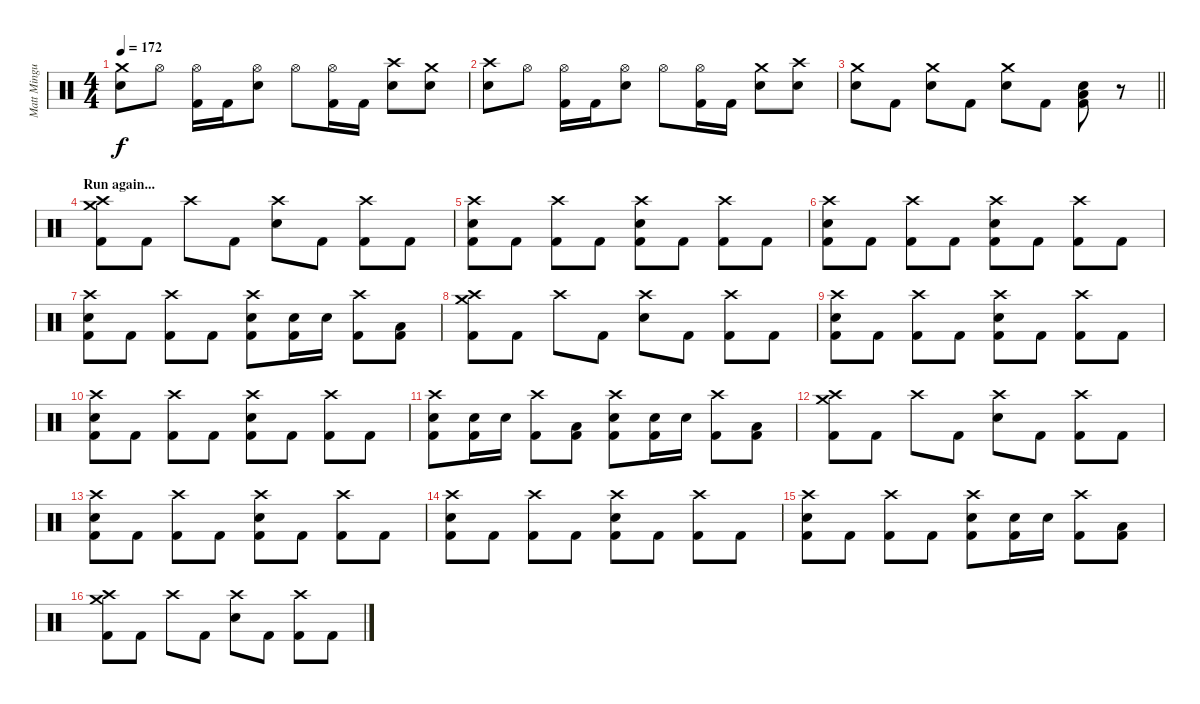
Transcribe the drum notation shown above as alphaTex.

\track ("Matt Mingus (Drum Kit)" "Matt Mingu") {instrument percussion}
\staff {score}
\articulation defaults
\ts (4 4)
\tempo 172
\clef neutral
\ks c
("Crash medium (hit)" "Electric Snare (hit)").8{dy f} "Hi-Hat (open)".8 ("Hi-Hat (open)" "Kick (hit) 2").16 "Kick (hit) 2".16 ("Hi-Hat (open)" "Electric Snare (hit)").8 "Hi-Hat (open)".8 ("Hi-Hat (open)" "Kick (hit) 2").16 "Kick (hit) 2".16 ("Crash high (hit)" "Electric Snare (hit)").8 ("Crash medium (hit)" "Electric Snare (hit)").8 |
("Crash high (hit)" "Electric Snare (hit)").8 "Hi-Hat (open)".8 ("Hi-Hat (open)" "Kick (hit) 2").16 "Kick (hit) 2".16 ("Hi-Hat (open)" "Electric Snare (hit)").8 "Hi-Hat (open)".8 ("Hi-Hat (open)" "Kick (hit) 2").16 "Kick (hit) 2".16 ("Crash medium (hit)" "Electric Snare (hit)").8 ("Crash high (hit)" "Electric Snare (hit)").8 |
\barLineRight lightlight
("Crash medium (hit)" "Electric Snare (hit)").8 "Kick (hit) 2".8 ("Crash medium (hit)" "Electric Snare (hit)").8 "Kick (hit) 2".8 ("Crash medium (hit)" "Electric Snare (hit)").8 "Kick (hit) 2".8 ("Low Tom (hit)" "Electric Snare (hit)" "Kick (hit) 2").8 r.8 |
\section ("" "Run again...")
("Crash medium (hit)" "Crash high (hit)" "Kick (hit) 2").8 "Kick (hit) 2".8 "Crash high (hit)".8 "Kick (hit) 2".8 ("Crash high (hit)" "Electric Snare (hit)").8 "Kick (hit) 2".8 ("Crash high (hit)" "Kick (hit) 2").8 "Kick (hit) 2".8 |
("Crash high (hit)" "Electric Snare (hit)" "Kick (hit) 2").8 "Kick (hit) 2".8 ("Crash high (hit)" "Kick (hit) 2").8 "Kick (hit) 2".8 ("Crash high (hit)" "Electric Snare (hit)" "Kick (hit) 2").8 "Kick (hit) 2".8 ("Crash high (hit)" "Kick (hit) 2").8 "Kick (hit) 2".8 |
("Crash high (hit)" "Electric Snare (hit)" "Kick (hit) 2").8 "Kick (hit) 2".8 ("Crash high (hit)" "Kick (hit) 2").8 "Kick (hit) 2".8 ("Crash high (hit)" "Electric Snare (hit)" "Kick (hit) 2").8 "Kick (hit) 2".8 ("Crash high (hit)" "Kick (hit) 2").8 "Kick (hit) 2".8 |
("Crash high (hit)" "Electric Snare (hit)" "Kick (hit) 2").8 "Kick (hit) 2".8 ("Crash high (hit)" "Kick (hit) 2").8 "Kick (hit) 2".8 ("Crash high (hit)" "Electric Snare (hit)" "Kick (hit) 2").8 ("Electric Snare (hit)" "Kick (hit) 2").16 "Electric Snare (hit)".16 ("Crash high (hit)" "Kick (hit) 2").8 ("Low Tom (hit)" "Kick (hit) 2").8 |
("Crash medium (hit)" "Crash high (hit)" "Kick (hit) 2").8 "Kick (hit) 2".8 "Crash high (hit)".8 "Kick (hit) 2".8 ("Crash high (hit)" "Electric Snare (hit)").8 "Kick (hit) 2".8 ("Crash high (hit)" "Kick (hit) 2").8 "Kick (hit) 2".8 |
("Crash high (hit)" "Electric Snare (hit)" "Kick (hit) 2").8 "Kick (hit) 2".8 ("Crash high (hit)" "Kick (hit) 2").8 "Kick (hit) 2".8 ("Crash high (hit)" "Electric Snare (hit)" "Kick (hit) 2").8 "Kick (hit) 2".8 ("Crash high (hit)" "Kick (hit) 2").8 "Kick (hit) 2".8 |
("Crash high (hit)" "Electric Snare (hit)" "Kick (hit) 2").8 "Kick (hit) 2".8 ("Crash high (hit)" "Kick (hit) 2").8 "Kick (hit) 2".8 ("Crash high (hit)" "Electric Snare (hit)" "Kick (hit) 2").8 "Kick (hit) 2".8 ("Crash high (hit)" "Kick (hit) 2").8 "Kick (hit) 2".8 |
("Crash high (hit)" "Electric Snare (hit)" "Kick (hit) 2").8 ("Electric Snare (hit)" "Kick (hit) 2").16 "Electric Snare (hit)".16 ("Crash high (hit)" "Kick (hit) 2").8 ("Low Tom (hit)" "Kick (hit) 2").8 ("Crash high (hit)" "Electric Snare (hit)" "Kick (hit) 2").8 ("Electric Snare (hit)" "Kick (hit) 2").16 "Electric Snare (hit)".16 ("Crash high (hit)" "Kick (hit) 2").8 ("Low Tom (hit)" "Kick (hit) 2").8 |
("Crash medium (hit)" "Crash high (hit)" "Kick (hit) 2").8 "Kick (hit) 2".8 "Crash high (hit)".8 "Kick (hit) 2".8 ("Crash high (hit)" "Electric Snare (hit)").8 "Kick (hit) 2".8 ("Crash high (hit)" "Kick (hit) 2").8 "Kick (hit) 2".8 |
("Crash high (hit)" "Electric Snare (hit)" "Kick (hit) 2").8 "Kick (hit) 2".8 ("Crash high (hit)" "Kick (hit) 2").8 "Kick (hit) 2".8 ("Crash high (hit)" "Electric Snare (hit)" "Kick (hit) 2").8 "Kick (hit) 2".8 ("Crash high (hit)" "Kick (hit) 2").8 "Kick (hit) 2".8 |
("Crash high (hit)" "Electric Snare (hit)" "Kick (hit) 2").8 "Kick (hit) 2".8 ("Crash high (hit)" "Kick (hit) 2").8 "Kick (hit) 2".8 ("Crash high (hit)" "Electric Snare (hit)" "Kick (hit) 2").8 "Kick (hit) 2".8 ("Crash high (hit)" "Kick (hit) 2").8 "Kick (hit) 2".8 |
("Crash high (hit)" "Electric Snare (hit)" "Kick (hit) 2").8 "Kick (hit) 2".8 ("Crash high (hit)" "Kick (hit) 2").8 "Kick (hit) 2".8 ("Crash high (hit)" "Electric Snare (hit)" "Kick (hit) 2").8 ("Electric Snare (hit)" "Kick (hit) 2").16 "Electric Snare (hit)".16 ("Crash high (hit)" "Kick (hit) 2").8 ("Low Tom (hit)" "Kick (hit) 2").8 |
("Crash medium (hit)" "Crash high (hit)" "Kick (hit) 2").8 "Kick (hit) 2".8 "Crash high (hit)".8 "Kick (hit) 2".8 ("Crash high (hit)" "Electric Snare (hit)").8 "Kick (hit) 2".8 ("Crash high (hit)" "Kick (hit) 2").8 "Kick (hit) 2".8
